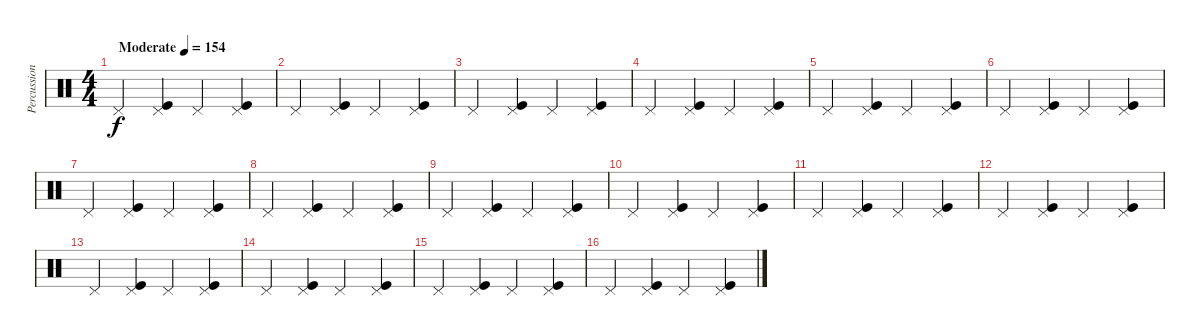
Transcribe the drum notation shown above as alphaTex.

\track ("Percussion" "Percussion") {instrument percussion}
\staff {score}
\articulation defaults
\ts (4 4)
\tempo (154 "Moderate")
\clef neutral
\ks c "Pedal Hi-Hat (hit)".4{dy f}
("Pedal Hi-Hat (hit)" "Kick (hit)").4 "Pedal Hi-Hat (hit)".4 ("Pedal Hi-Hat (hit)" "Kick (hit)").4 |
"Pedal Hi-Hat (hit)".4 ("Pedal Hi-Hat (hit)" "Kick (hit)").4 "Pedal Hi-Hat (hit)".4 ("Pedal Hi-Hat (hit)" "Kick (hit)").4 |
"Pedal Hi-Hat (hit)".4 ("Pedal Hi-Hat (hit)" "Kick (hit)").4 "Pedal Hi-Hat (hit)".4 ("Pedal Hi-Hat (hit)" "Kick (hit)").4 |
"Pedal Hi-Hat (hit)".4 ("Pedal Hi-Hat (hit)" "Kick (hit)").4 "Pedal Hi-Hat (hit)".4 ("Pedal Hi-Hat (hit)" "Kick (hit)").4 |
"Pedal Hi-Hat (hit)".4 ("Pedal Hi-Hat (hit)" "Kick (hit)").4 "Pedal Hi-Hat (hit)".4 ("Pedal Hi-Hat (hit)" "Kick (hit)").4 |
"Pedal Hi-Hat (hit)".4 ("Pedal Hi-Hat (hit)" "Kick (hit)").4 "Pedal Hi-Hat (hit)".4 ("Pedal Hi-Hat (hit)" "Kick (hit)").4 |
"Pedal Hi-Hat (hit)".4 ("Pedal Hi-Hat (hit)" "Kick (hit)").4 "Pedal Hi-Hat (hit)".4 ("Pedal Hi-Hat (hit)" "Kick (hit)").4 |
"Pedal Hi-Hat (hit)".4 ("Pedal Hi-Hat (hit)" "Kick (hit)").4 "Pedal Hi-Hat (hit)".4 ("Pedal Hi-Hat (hit)" "Kick (hit)").4 |
"Pedal Hi-Hat (hit)".4 ("Pedal Hi-Hat (hit)" "Kick (hit)").4 "Pedal Hi-Hat (hit)".4 ("Pedal Hi-Hat (hit)" "Kick (hit)").4 |
"Pedal Hi-Hat (hit)".4 ("Pedal Hi-Hat (hit)" "Kick (hit)").4 "Pedal Hi-Hat (hit)".4 ("Pedal Hi-Hat (hit)" "Kick (hit)").4 |
"Pedal Hi-Hat (hit)".4 ("Pedal Hi-Hat (hit)" "Kick (hit)").4 "Pedal Hi-Hat (hit)".4 ("Pedal Hi-Hat (hit)" "Kick (hit)").4 |
"Pedal Hi-Hat (hit)".4 ("Pedal Hi-Hat (hit)" "Kick (hit)").4 "Pedal Hi-Hat (hit)".4 ("Pedal Hi-Hat (hit)" "Kick (hit)").4 |
"Pedal Hi-Hat (hit)".4 ("Pedal Hi-Hat (hit)" "Kick (hit)").4 "Pedal Hi-Hat (hit)".4 ("Pedal Hi-Hat (hit)" "Kick (hit)").4 |
"Pedal Hi-Hat (hit)".4 ("Pedal Hi-Hat (hit)" "Kick (hit)").4 "Pedal Hi-Hat (hit)".4 ("Pedal Hi-Hat (hit)" "Kick (hit)").4 |
"Pedal Hi-Hat (hit)".4 ("Pedal Hi-Hat (hit)" "Kick (hit)").4 "Pedal Hi-Hat (hit)".4 ("Pedal Hi-Hat (hit)" "Kick (hit)").4 |
"Pedal Hi-Hat (hit)".4 ("Pedal Hi-Hat (hit)" "Kick (hit)").4 "Pedal Hi-Hat (hit)".4 ("Pedal Hi-Hat (hit)" "Kick (hit)").4
